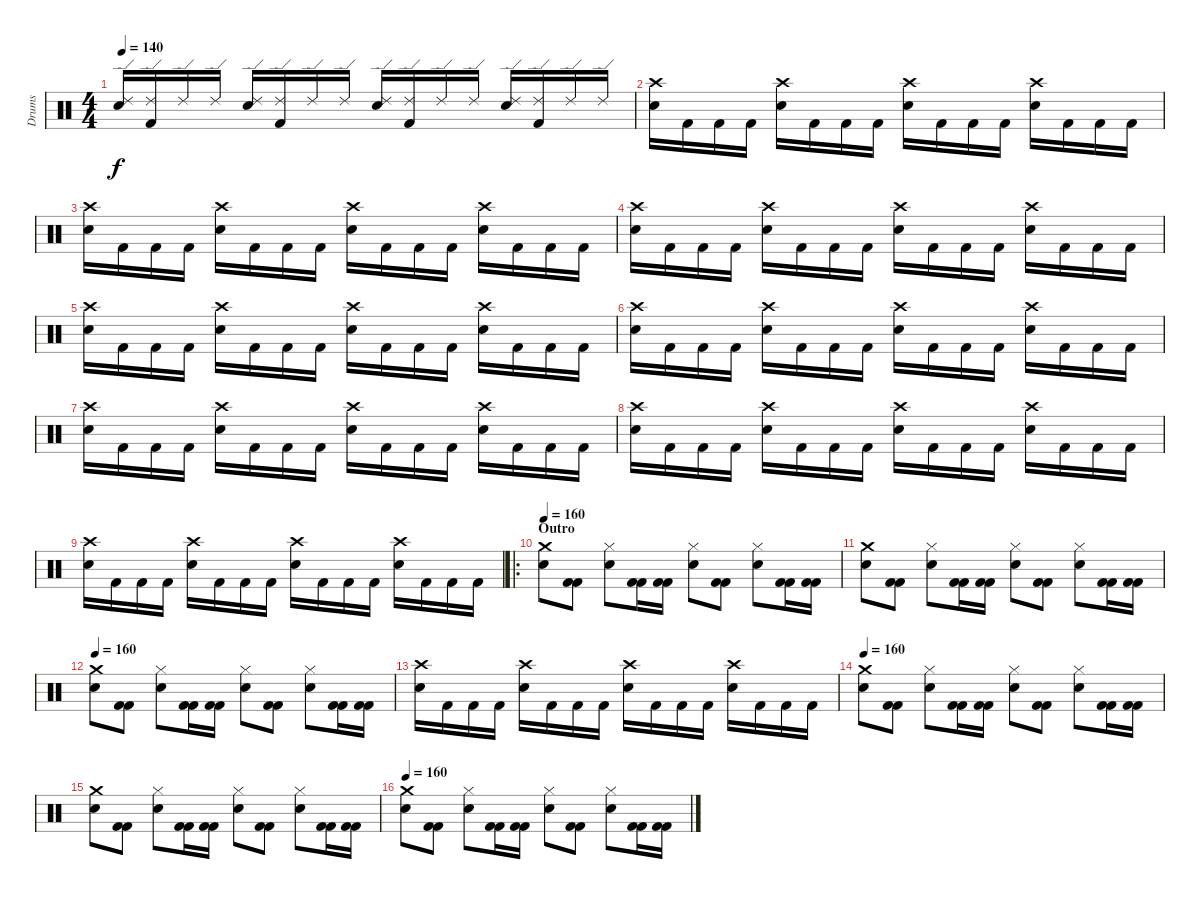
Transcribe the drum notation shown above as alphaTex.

\track ("Drums" "Drums") {instrument percussion}
\staff {score}
\articulation defaults
\ts (4 4)
\tempo 140
\clef neutral
\ks c
("Ride (edge) 2" "Electric Snare (hit)").16{dy f} ("Ride (edge) 2" "Kick (hit) 2").16 "Ride (edge) 2".16 "Ride (edge) 2".16 ("Electric Snare (hit)" "Ride (edge) 2").16 ("Ride (edge) 2" "Kick (hit) 2").16 "Ride (edge) 2".16 "Ride (edge) 2".16 ("Ride (edge) 2" "Electric Snare (hit)").16 ("Kick (hit) 2" "Ride (edge) 2").16 "Ride (edge) 2".16 "Ride (edge) 2".16 ("Ride (edge) 2" "Electric Snare (hit)").16 ("Kick (hit) 2" "Ride (edge) 2").16 "Ride (edge) 2".16 "Ride (edge) 2".16 |
("Crash high (hit)" "Electric Snare (hit)").16 "Kick (hit) 2".16 "Kick (hit) 2".16 "Kick (hit) 2".16 ("Crash high (hit)" "Electric Snare (hit)").16 "Kick (hit) 2".16 "Kick (hit) 2".16 "Kick (hit) 2".16 ("Crash high (hit)" "Electric Snare (hit)").16 "Kick (hit) 2".16 "Kick (hit) 2".16 "Kick (hit) 2".16 ("Crash high (hit)" "Electric Snare (hit)").16 "Kick (hit) 2".16 "Kick (hit) 2".16 "Kick (hit) 2".16 |
("Crash high (hit)" "Electric Snare (hit)").16 "Kick (hit) 2".16 "Kick (hit) 2".16 "Kick (hit) 2".16 ("Crash high (hit)" "Electric Snare (hit)").16 "Kick (hit) 2".16 "Kick (hit) 2".16 "Kick (hit) 2".16 ("Crash high (hit)" "Electric Snare (hit)").16 "Kick (hit) 2".16 "Kick (hit) 2".16 "Kick (hit) 2".16 ("Crash high (hit)" "Electric Snare (hit)").16 "Kick (hit) 2".16 "Kick (hit) 2".16 "Kick (hit) 2".16 |
("Crash high (hit)" "Electric Snare (hit)").16 "Kick (hit) 2".16 "Kick (hit) 2".16 "Kick (hit) 2".16 ("Crash high (hit)" "Electric Snare (hit)").16 "Kick (hit) 2".16 "Kick (hit) 2".16 "Kick (hit) 2".16 ("Crash high (hit)" "Electric Snare (hit)").16 "Kick (hit) 2".16 "Kick (hit) 2".16 "Kick (hit) 2".16 ("Crash high (hit)" "Electric Snare (hit)").16 "Kick (hit) 2".16 "Kick (hit) 2".16 "Kick (hit) 2".16 |
("Crash high (hit)" "Electric Snare (hit)").16 "Kick (hit) 2".16 "Kick (hit) 2".16 "Kick (hit) 2".16 ("Crash high (hit)" "Electric Snare (hit)").16 "Kick (hit) 2".16 "Kick (hit) 2".16 "Kick (hit) 2".16 ("Crash high (hit)" "Electric Snare (hit)").16 "Kick (hit) 2".16 "Kick (hit) 2".16 "Kick (hit) 2".16 ("Crash high (hit)" "Electric Snare (hit)").16 "Kick (hit) 2".16 "Kick (hit) 2".16 "Kick (hit) 2".16 |
("Crash high (hit)" "Electric Snare (hit)").16 "Kick (hit) 2".16 "Kick (hit) 2".16 "Kick (hit) 2".16 ("Crash high (hit)" "Electric Snare (hit)").16 "Kick (hit) 2".16 "Kick (hit) 2".16 "Kick (hit) 2".16 ("Crash high (hit)" "Electric Snare (hit)").16 "Kick (hit) 2".16 "Kick (hit) 2".16 "Kick (hit) 2".16 ("Crash high (hit)" "Electric Snare (hit)").16 "Kick (hit) 2".16 "Kick (hit) 2".16 "Kick (hit) 2".16 |
("Crash high (hit)" "Electric Snare (hit)").16 "Kick (hit) 2".16 "Kick (hit) 2".16 "Kick (hit) 2".16 ("Crash high (hit)" "Electric Snare (hit)").16 "Kick (hit) 2".16 "Kick (hit) 2".16 "Kick (hit) 2".16 ("Crash high (hit)" "Electric Snare (hit)").16 "Kick (hit) 2".16 "Kick (hit) 2".16 "Kick (hit) 2".16 ("Crash high (hit)" "Electric Snare (hit)").16 "Kick (hit) 2".16 "Kick (hit) 2".16 "Kick (hit) 2".16 |
("Crash high (hit)" "Electric Snare (hit)").16 "Kick (hit) 2".16 "Kick (hit) 2".16 "Kick (hit) 2".16 ("Crash high (hit)" "Electric Snare (hit)").16 "Kick (hit) 2".16 "Kick (hit) 2".16 "Kick (hit) 2".16 ("Crash high (hit)" "Electric Snare (hit)").16 "Kick (hit) 2".16 "Kick (hit) 2".16 "Kick (hit) 2".16 ("Crash high (hit)" "Electric Snare (hit)").16 "Kick (hit) 2".16 "Kick (hit) 2".16 "Kick (hit) 2".16 |
("Crash high (hit)" "Electric Snare (hit)").16 "Kick (hit) 2".16 "Kick (hit) 2".16 "Kick (hit) 2".16 ("Crash high (hit)" "Electric Snare (hit)").16 "Kick (hit) 2".16 "Kick (hit) 2".16 "Kick (hit) 2".16 ("Crash high (hit)" "Electric Snare (hit)").16 "Kick (hit) 2".16 "Kick (hit) 2".16 "Kick (hit) 2".16 ("Crash high (hit)" "Electric Snare (hit)").16 "Kick (hit) 2".16 "Kick (hit) 2".16 "Kick (hit) 2".16 |
\ro
\section ("" "Outro ")
\tempo 160
("Crash medium (hit)" "Electric Snare (hit)").8 ("Kick (hit) 2" "Kick (hit) 2").8 ("Hi-Hat (closed)" "Electric Snare (hit)").8 ("Kick (hit) 2" "Kick (hit) 2").16 ("Kick (hit) 2" "Kick (hit) 2").16 ("Hi-Hat (closed)" "Electric Snare (hit)").8 ("Kick (hit) 2" "Kick (hit) 2").8 ("Electric Snare (hit)" "Hi-Hat (closed)").8 ("Kick (hit) 2" "Kick (hit) 2").16 ("Kick (hit) 2" "Kick (hit) 2").16 |
("Crash medium (hit)" "Electric Snare (hit)").8 ("Kick (hit) 2" "Kick (hit) 2").8 ("Hi-Hat (closed)" "Electric Snare (hit)").8 ("Kick (hit) 2" "Kick (hit) 2").16 ("Kick (hit) 2" "Kick (hit) 2").16 ("Hi-Hat (closed)" "Electric Snare (hit)").8 ("Kick (hit) 2" "Kick (hit) 2").8 ("Electric Snare (hit)" "Hi-Hat (closed)").8 ("Kick (hit) 2" "Kick (hit) 2").16 ("Kick (hit) 2" "Kick (hit) 2").16 |
\tempo 160
("Crash medium (hit)" "Electric Snare (hit)").8 ("Kick (hit) 2" "Kick (hit) 2").8 ("Hi-Hat (closed)" "Electric Snare (hit)").8 ("Kick (hit) 2" "Kick (hit) 2").16 ("Kick (hit) 2" "Kick (hit) 2").16 ("Hi-Hat (closed)" "Electric Snare (hit)").8 ("Kick (hit) 2" "Kick (hit) 2").8 ("Electric Snare (hit)" "Hi-Hat (closed)").8 ("Kick (hit) 2" "Kick (hit) 2").16 ("Kick (hit) 2" "Kick (hit) 2").16 |
("Crash high (hit)" "Electric Snare (hit)").16 "Kick (hit) 2".16 "Kick (hit) 2".16 "Kick (hit) 2".16 ("Crash high (hit)" "Electric Snare (hit)").16 "Kick (hit) 2".16 "Kick (hit) 2".16 "Kick (hit) 2".16 ("Crash high (hit)" "Electric Snare (hit)").16 "Kick (hit) 2".16 "Kick (hit) 2".16 "Kick (hit) 2".16 ("Crash high (hit)" "Electric Snare (hit)").16 "Kick (hit) 2".16 "Kick (hit) 2".16 "Kick (hit) 2".16 |
\tempo 160
("Crash medium (hit)" "Electric Snare (hit)").8 ("Kick (hit) 2" "Kick (hit) 2").8 ("Hi-Hat (closed)" "Electric Snare (hit)").8 ("Kick (hit) 2" "Kick (hit) 2").16 ("Kick (hit) 2" "Kick (hit) 2").16 ("Hi-Hat (closed)" "Electric Snare (hit)").8 ("Kick (hit) 2" "Kick (hit) 2").8 ("Electric Snare (hit)" "Hi-Hat (closed)").8 ("Kick (hit) 2" "Kick (hit) 2").16 ("Kick (hit) 2" "Kick (hit) 2").16 |
("Crash medium (hit)" "Electric Snare (hit)").8 ("Kick (hit) 2" "Kick (hit) 2").8 ("Hi-Hat (closed)" "Electric Snare (hit)").8 ("Kick (hit) 2" "Kick (hit) 2").16 ("Kick (hit) 2" "Kick (hit) 2").16 ("Hi-Hat (closed)" "Electric Snare (hit)").8 ("Kick (hit) 2" "Kick (hit) 2").8 ("Electric Snare (hit)" "Hi-Hat (closed)").8 ("Kick (hit) 2" "Kick (hit) 2").16 ("Kick (hit) 2" "Kick (hit) 2").16 |
\tempo 160
("Crash medium (hit)" "Electric Snare (hit)").8 ("Kick (hit) 2" "Kick (hit) 2").8 ("Hi-Hat (closed)" "Electric Snare (hit)").8 ("Kick (hit) 2" "Kick (hit) 2").16 ("Kick (hit) 2" "Kick (hit) 2").16 ("Hi-Hat (closed)" "Electric Snare (hit)").8 ("Kick (hit) 2" "Kick (hit) 2").8 ("Electric Snare (hit)" "Hi-Hat (closed)").8 ("Kick (hit) 2" "Kick (hit) 2").16 ("Kick (hit) 2" "Kick (hit) 2").16
